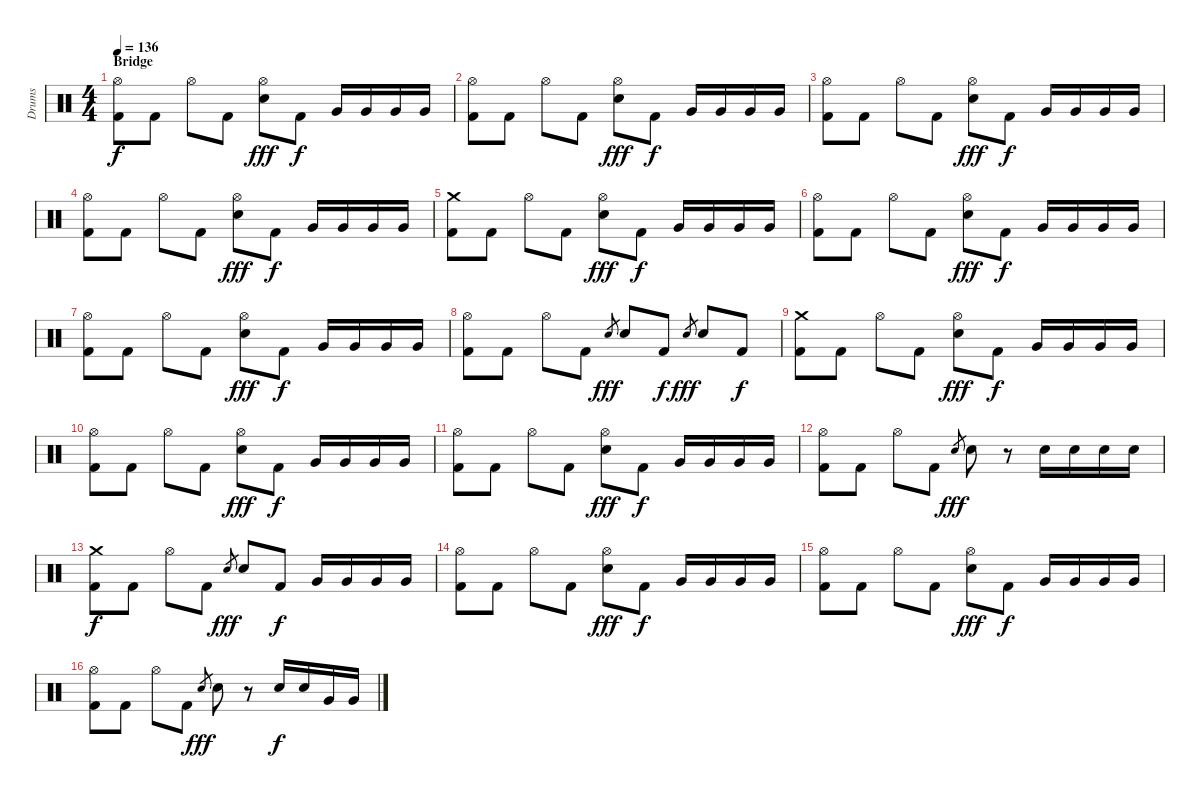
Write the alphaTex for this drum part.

\track ("Drums" "Drums") {instrument percussion}
\staff {score}
\articulation defaults
\ts (4 4)
\section ("" "Bridge")
\tempo 136
\clef neutral
\ks c
("Hi-Hat (open)" "Kick (hit) 2").8{dy f} "Kick (hit) 2".8 "Hi-Hat (open)".8 "Kick (hit) 2".8 ("Hi-Hat (open)" "Electric Snare (hit)").8{dy fff} "Kick (hit) 2".8{dy f} "Very Low Tom (hit)".16 "Very Low Tom (hit)".16 "Very Low Tom (hit)".16 "Very Low Tom (hit)".16 |
("Hi-Hat (open)" "Kick (hit) 2").8 "Kick (hit) 2".8 "Hi-Hat (open)".8 "Kick (hit) 2".8 ("Hi-Hat (open)" "Electric Snare (hit)").8{dy fff} "Kick (hit) 2".8{dy f} "Very Low Tom (hit)".16 "Very Low Tom (hit)".16 "Very Low Tom (hit)".16 "Very Low Tom (hit)".16 |
("Hi-Hat (open)" "Kick (hit) 2").8 "Kick (hit) 2".8 "Hi-Hat (open)".8 "Kick (hit) 2".8 ("Hi-Hat (open)" "Electric Snare (hit)").8{dy fff} "Kick (hit) 2".8{dy f} "Very Low Tom (hit)".16 "Very Low Tom (hit)".16 "Very Low Tom (hit)".16 "Very Low Tom (hit)".16 |
("Hi-Hat (open)" "Kick (hit) 2").8 "Kick (hit) 2".8 "Hi-Hat (open)".8 "Kick (hit) 2".8 ("Hi-Hat (open)" "Electric Snare (hit)").8{dy fff} "Kick (hit) 2".8{dy f} "Very Low Tom (hit)".16 "Very Low Tom (hit)".16 "Very Low Tom (hit)".16 "Very Low Tom (hit)".16 |
("Crash medium (hit)" "Kick (hit) 2").8 "Kick (hit) 2".8 "Hi-Hat (open)".8 "Kick (hit) 2".8 ("Hi-Hat (open)" "Electric Snare (hit)").8{dy fff} "Kick (hit) 2".8{dy f} "Very Low Tom (hit)".16 "Very Low Tom (hit)".16 "Very Low Tom (hit)".16 "Very Low Tom (hit)".16 |
("Hi-Hat (open)" "Kick (hit) 2").8 "Kick (hit) 2".8 "Hi-Hat (open)".8 "Kick (hit) 2".8 ("Hi-Hat (open)" "Electric Snare (hit)").8{dy fff} "Kick (hit) 2".8{dy f} "Very Low Tom (hit)".16 "Very Low Tom (hit)".16 "Very Low Tom (hit)".16 "Very Low Tom (hit)".16 |
("Hi-Hat (open)" "Kick (hit) 2").8 "Kick (hit) 2".8 "Hi-Hat (open)".8 "Kick (hit) 2".8 ("Hi-Hat (open)" "Electric Snare (hit)").8{dy fff} "Kick (hit) 2".8{dy f} "Very Low Tom (hit)".16 "Very Low Tom (hit)".16 "Very Low Tom (hit)".16 "Very Low Tom (hit)".16 |
("Hi-Hat (open)" "Kick (hit) 2").8 "Kick (hit) 2".8 "Hi-Hat (open)".8 "Kick (hit) 2".8 "Electric Snare (hit)".8{gr dy fff} "Electric Snare (hit)".8 "Kick (hit) 2".8{dy f} "Electric Snare (hit)".8{gr dy fff} "Electric Snare (hit)".8 "Kick (hit) 2".8{dy f} |
("Crash medium (hit)" "Kick (hit) 2").8 "Kick (hit) 2".8 "Hi-Hat (open)".8 "Kick (hit) 2".8 ("Hi-Hat (open)" "Electric Snare (hit)").8{dy fff} "Kick (hit) 2".8{dy f} "Very Low Tom (hit)".16 "Very Low Tom (hit)".16 "Very Low Tom (hit)".16 "Very Low Tom (hit)".16 |
("Hi-Hat (open)" "Kick (hit) 2").8 "Kick (hit) 2".8 "Hi-Hat (open)".8 "Kick (hit) 2".8 ("Hi-Hat (open)" "Electric Snare (hit)").8{dy fff} "Kick (hit) 2".8{dy f} "Very Low Tom (hit)".16 "Very Low Tom (hit)".16 "Very Low Tom (hit)".16 "Very Low Tom (hit)".16 |
("Hi-Hat (open)" "Kick (hit) 2").8 "Kick (hit) 2".8 "Hi-Hat (open)".8 "Kick (hit) 2".8 ("Hi-Hat (open)" "Electric Snare (hit)").8{dy fff} "Kick (hit) 2".8{dy f} "Very Low Tom (hit)".16 "Very Low Tom (hit)".16 "Very Low Tom (hit)".16 "Very Low Tom (hit)".16 |
("Hi-Hat (open)" "Kick (hit) 2").8 "Kick (hit) 2".8 "Hi-Hat (open)".8 "Kick (hit) 2".8 "Electric Snare (hit)".8{gr dy fff} "Electric Snare (hit)".8 r.8 "Electric Snare (hit)".16 "Electric Snare (hit)".16 "Electric Snare (hit)".16 "Electric Snare (hit)".16 |
("Crash medium (hit)" "Kick (hit) 2").8{dy f} "Kick (hit) 2".8 "Hi-Hat (open)".8 "Kick (hit) 2".8 "Electric Snare (hit)".8{gr dy fff} "Electric Snare (hit)".8 "Kick (hit) 2".8{dy f} "Very Low Tom (hit)".16 "Very Low Tom (hit)".16 "Very Low Tom (hit)".16 "Very Low Tom (hit)".16 |
("Hi-Hat (open)" "Kick (hit) 2").8 "Kick (hit) 2".8 "Hi-Hat (open)".8 "Kick (hit) 2".8 ("Hi-Hat (open)" "Electric Snare (hit)").8{dy fff} "Kick (hit) 2".8{dy f} "Very Low Tom (hit)".16 "Very Low Tom (hit)".16 "Very Low Tom (hit)".16 "Very Low Tom (hit)".16 |
("Hi-Hat (open)" "Kick (hit) 2").8 "Kick (hit) 2".8 "Hi-Hat (open)".8 "Kick (hit) 2".8 ("Hi-Hat (open)" "Electric Snare (hit)").8{dy fff} "Kick (hit) 2".8{dy f} "Very Low Tom (hit)".16 "Very Low Tom (hit)".16 "Very Low Tom (hit)".16 "Very Low Tom (hit)".16 |
("Hi-Hat (open)" "Kick (hit) 2").8 "Kick (hit) 2".8 "Hi-Hat (open)".8 "Kick (hit) 2".8 "Electric Snare (hit)".8{gr dy fff} "Electric Snare (hit)".8 r.8 "Electric Snare (hit)".16{dy f} "Electric Snare (hit)".16 "Very Low Tom (hit)".16 "Very Low Tom (hit)".16
